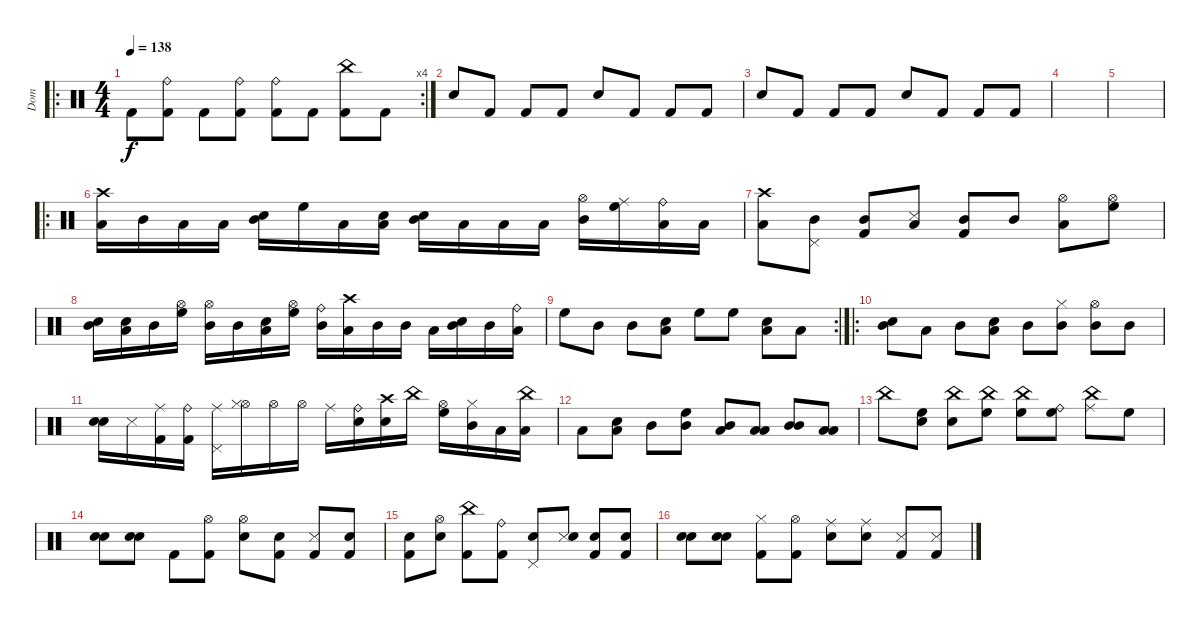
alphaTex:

\track ("Dom" "Dom") {instrument percussion}
\staff {score}
\articulation defaults
\ro
\rc 4
\ts (4 4)
\tempo 138
\clef neutral
\ks c "Kick (hit) 2".8{dy f}
("Ride (bell)" "Kick (hit) 2").8 "Kick (hit) 2".8 ("Ride (bell)" "Kick (hit) 2").8 ("Ride (bell)" "Kick (hit) 2").8 "Kick (hit) 2".8 ("China (hit)" "Kick (hit) 2").8 "Kick (hit) 2".8 |
"Snare (hit) 2".8 "Kick (hit) 2".8 "Kick (hit) 2".8 "Kick (hit) 2".8 "Snare (hit) 2".8 "Kick (hit) 2".8 "Kick (hit) 2".8 "Kick (hit) 2".8 |
"Snare (hit) 2".8 "Kick (hit) 2".8 "Kick (hit) 2".8 "Kick (hit) 2".8 "Snare (hit) 2".8 "Kick (hit) 2".8 "Kick (hit) 2".8 "Kick (hit) 2".8 |
|
|
\ro
("Crash high (hit)" "Low Tom (hit)").16 "Mid Tom (hit)".16 "Low Tom (hit)".16 "Low Floor Tom (hit)".16 ("Snare (hit) 2" "Mid Tom (hit)").16 "High Floor Tom (hit)".16 "Low Tom (hit)".16 ("Snare (hit) 2" "Low Tom (hit)").16 ("Snare (hit) 2" "Mid Tom (hit)").16 "Low Tom (hit)".16 "Low Floor Tom (hit)".16 "Low Tom (hit)".16 ("Hi-Hat (open)" "Mid Tom (hit)").16 ("Ride (middle)" "High Floor Tom (hit)").16 ("Ride (bell)" "Low Tom (hit)").16 "Low Floor Tom (hit)".16 |
("Crash high (hit)" "Low Tom (hit)").8 ("Pedal Hi-Hat (hit)" "Mid Tom (hit)").8 ("Kick (hit) 2" "Mid Tom (hit)").8 ("Snare (side stick) 3" "Low Tom (hit)").8 ("Kick (hit) 2" "Mid Tom (hit)").8 "Mid Tom (hit)".8 ("Hi-Hat (open)" "Low Tom (hit)").8 ("Hi-Hat (open)" "High Floor Tom (hit)").8 |
("Snare (hit) 2" "Mid Tom (hit)").16 ("Snare (hit) 2" "Low Tom (hit)").16 "Mid Tom (hit)".16 ("Hi-Hat (open)" "High Floor Tom (hit)").16 ("Hi-Hat (open)" "Mid Tom (hit)").16 "Mid Tom (hit)".16 ("Snare (hit) 2" "Low Tom (hit)").16 ("Hi-Hat (open)" "High Floor Tom (hit)").16 ("Ride (bell)" "Mid Tom (hit)").16 ("Crash high (hit)" "Low Tom (hit)").16 "Mid Tom (hit)".16 "Mid Tom (hit)".16 "Low Tom (hit)".16 ("Snare (hit) 2" "Mid Tom (hit)").16 "Mid Tom (hit)".16 ("Ride (bell)" "Low Tom (hit)").16 |
\rc 2 "High Floor Tom (hit)".8 "Mid Tom (hit)".8 "Mid Tom (hit)".8
("Snare (hit) 2" "Low Tom (hit)").8 "High Floor Tom (hit)".8 "High Floor Tom (hit)".8 ("Snare (hit) 2" "Low Tom (hit)").8 "Low Tom (hit)".8 |
\ro
("Snare (hit) 2" "Mid Tom (hit)").8 "Low Tom (hit)".8 "Mid Tom (hit)".8 ("Snare (hit) 2" "Low Tom (hit)").8 "Mid Tom (hit)".8 ("Hi-Hat (closed)" "Mid Tom (hit)").8 ("Hi-Hat (open)" "Mid Tom (hit)").8 "Mid Tom (hit)".8 |
("Snare (hit) 2" "Snare (hit) 2").16 "Snare (side stick) 3".16 ("Ride (middle)" "Kick (hit) 2").16 ("Ride (bell)" "Kick (hit) 2").16 ("Ride (middle)" "Pedal Hi-Hat (hit)").16 ("Hi-Hat (open)" "Hi-Hat (closed)").16 "Hi-Hat (open)".16 "Hi-Hat (open)".16 "Ride (middle)".16 ("Snare (hit) 2" "Ride (bell)").16 ("Snare (hit) 2" "Crash high (hit)").16 "China (hit)".16 ("Hi-Hat (open)" "High Floor Tom (hit)").16 ("Hi-Hat (closed)" "Mid Tom (hit)").16 "Low Tom (hit)".16 ("China (hit)" "Low Floor Tom (hit)").16 |
"Low Floor Tom (hit)".8 ("Snare (hit) 2" "Low Tom (hit)").8 "Mid Tom (hit)".8 ("High Floor Tom (hit)" "Mid Tom (hit)").8 ("Mid Tom (hit)" "Low Tom (hit)").8 ("Low Tom (hit)" "Low Tom (hit)").8 ("Mid Tom (hit)" "Mid Tom (hit)").8 ("Low Floor Tom (hit)" "Low Tom (hit)").8 |
"China (hit)".8 ("Snare (hit) 2" "High Floor Tom (hit)").8 ("Snare (hit) 2" "China (hit)").8 ("China (hit)" "High Floor Tom (hit)").8 ("High Floor Tom (hit)" "China (hit)").8 ("Ride (bell)" "High Floor Tom (hit)").8 ("Ride (middle)" "China (hit)").8 "High Floor Tom (hit)".8 |
("Snare (hit) 2" "Snare (hit) 2").8 ("Snare (hit) 2" "Snare (hit) 2").8 "Kick (hit) 2".8 ("Hi-Hat (open)" "Kick (hit) 2").8 ("Hi-Hat (open)" "Snare (hit) 2").8 ("Kick (hit) 2" "Snare (hit) 2").8 ("Snare (side stick) 3" "Kick (hit) 2").8 ("Snare (hit) 2" "Kick (hit) 2").8 |
("Kick (hit) 2" "Snare (hit) 2").8 ("Hi-Hat (open)" "Snare (hit) 2").8 ("China (hit)" "Kick (hit) 2").8 ("Ride (bell)" "Kick (hit) 2").8 ("Pedal Hi-Hat (hit)" "Snare (hit) 2").8 ("Snare (side stick) 3" "Snare (hit) 2").8 ("Snare (hit) 2" "Kick (hit) 2").8 ("Snare (hit) 2" "Kick (hit) 2").8 |
("Snare (hit) 2" "Snare (hit) 2").8 ("Snare (hit) 2" "Snare (hit) 2").8 ("Hi-Hat (closed)" "Kick (hit) 2").8 ("Hi-Hat (open)" "Kick (hit) 2").8 ("Ride (middle)" "Snare (hit) 2").8 ("Ride (middle)" "Snare (hit) 2").8 ("Snare (side stick) 3" "Kick (hit) 2").8 ("Snare (side stick) 3" "Kick (hit) 2").8
